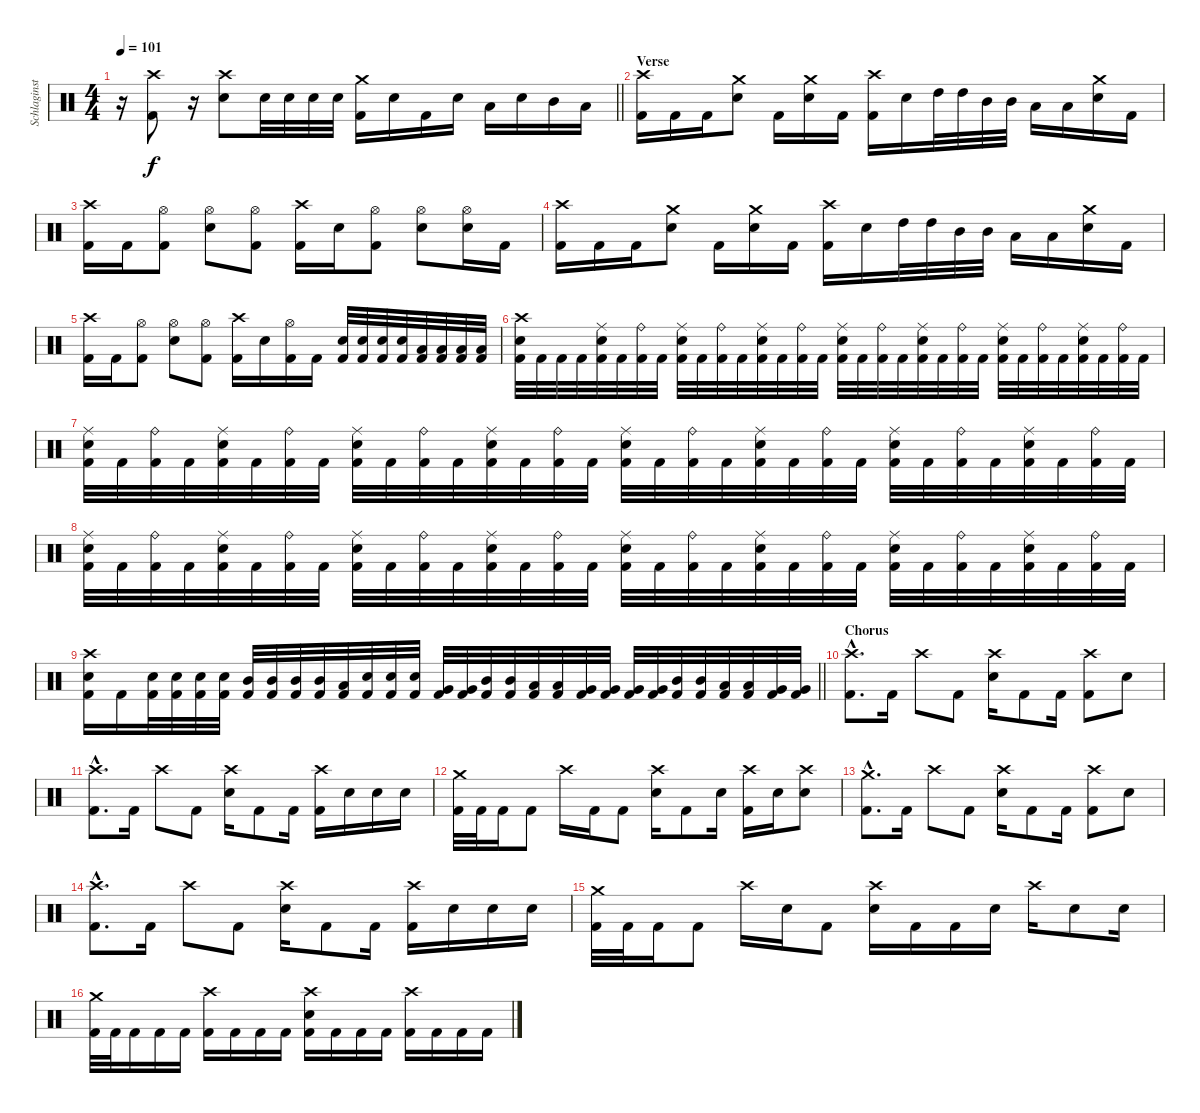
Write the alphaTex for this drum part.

\track ("Schlaginstrumente - Auswahl" "Schlaginst") {instrument percussion}
\staff {score}
\articulation defaults
\ts (4 4)
\tempo 101
\clef neutral
\barLineRight lightlight
\ks c
r.16{dy f} ("Crash high (hit)" "Kick (hit) 2").8 r.16 ("Crash high (hit)" "Snare (hit) 2").8 "Snare (hit) 2".32 "Snare (hit) 2".32 "Snare (hit) 2".32 "Snare (hit) 2".32 ("Crash medium (hit)" "Kick (hit) 2").16 "Snare (hit) 2".16 "Kick (hit) 2".16 "Snare (hit) 2".16 "Low Floor Tom (hit)".16 "Snare (hit) 2".16 "Mid Tom (hit)".16 "Low Tom (hit)".16 |
\section ("" "Verse")
("Crash high (hit)" "Kick (hit) 2").16 "Kick (hit) 2".16 "Kick (hit) 2".16 ("Crash medium (hit)" "Snare (hit) 2").8 "Kick (hit) 2".16 ("Crash medium (hit)" "Snare (hit) 2").16 "Kick (hit) 2".16 ("Crash high (hit)" "Kick (hit) 2").16 "Snare (hit) 2".16 "High Tom (hit)".32 "High Tom (hit)".32 "Mid Tom (hit)".32 "Mid Tom (hit)".32 "Low Tom (hit)".16 "Low Tom (hit)".16 ("Crash medium (hit)" "Snare (hit) 2").16 "Kick (hit) 2".16 |
("Crash high (hit)" "Kick (hit) 2").16 "Kick (hit) 2".16 ("Hi-Hat (open)" "Kick (hit) 2").8 ("Hi-Hat (open)" "Snare (hit) 2").8 ("Hi-Hat (open)" "Kick (hit) 2").8 ("Crash high (hit)" "Kick (hit) 2").16 "Snare (hit) 2".16 ("Hi-Hat (open)" "Kick (hit) 2").8 ("Hi-Hat (open)" "Snare (hit) 2").8 ("Hi-Hat (open)" "Snare (hit) 2").16 "Kick (hit) 2".16 |
("Crash high (hit)" "Kick (hit) 2").16 "Kick (hit) 2".16 "Kick (hit) 2".16 ("Crash medium (hit)" "Snare (hit) 2").8 "Kick (hit) 2".16 ("Crash medium (hit)" "Snare (hit) 2").16 "Kick (hit) 2".16 ("Crash high (hit)" "Kick (hit) 2").16 "Snare (hit) 2".16 "High Tom (hit)".32 "High Tom (hit)".32 "Mid Tom (hit)".32 "Mid Tom (hit)".32 "Low Tom (hit)".16 "Low Tom (hit)".16 ("Crash medium (hit)" "Snare (hit) 2").16 "Kick (hit) 2".16 |
("Crash high (hit)" "Kick (hit) 2").16 "Kick (hit) 2".16 ("Hi-Hat (open)" "Kick (hit) 2").8 ("Hi-Hat (open)" "Snare (hit) 2").8 ("Hi-Hat (open)" "Kick (hit) 2").8 ("Crash high (hit)" "Kick (hit) 2").16 "Snare (hit) 2".16 ("Hi-Hat (open)" "Kick (hit) 2").16 "Kick (hit) 2".16 ("Snare (hit) 2" "Kick (hit) 2").32 ("Snare (hit) 2" "Kick (hit) 2").32 ("Snare (hit) 2" "Kick (hit) 2").32 ("Snare (hit) 2" "Kick (hit) 2").32 ("Low Tom (hit)" "Kick (hit) 2").32 ("Low Tom (hit)" "Kick (hit) 2").32 ("Low Tom (hit)" "Kick (hit) 2").32 ("Low Tom (hit)" "Kick (hit) 2").32 |
("Crash high (hit)" "Snare (hit) 2" "Kick (hit) 2").32 "Kick (hit) 2".32 "Kick (hit) 2".32 "Kick (hit) 2".32 ("Ride (middle)" "Snare (hit) 2" "Kick (hit) 2").32 "Kick (hit) 2".32 ("Ride (bell)" "Kick (hit) 2").32 "Kick (hit) 2".32 ("Ride (middle)" "Snare (hit) 2" "Kick (hit) 2").32 "Kick (hit) 2".32 ("Ride (bell)" "Kick (hit) 2").32 "Kick (hit) 2".32 ("Ride (middle)" "Snare (hit) 2" "Kick (hit) 2").32 "Kick (hit) 2".32 ("Ride (bell)" "Kick (hit) 2").32 "Kick (hit) 2".32 ("Ride (middle)" "Snare (hit) 2" "Kick (hit) 2").32 "Kick (hit) 2".32 ("Ride (bell)" "Kick (hit) 2").32 "Kick (hit) 2".32 ("Ride (middle)" "Snare (hit) 2" "Kick (hit) 2").32 "Kick (hit) 2".32 ("Ride (bell)" "Kick (hit) 2").32 "Kick (hit) 2".32 ("Ride (middle)" "Snare (hit) 2" "Kick (hit) 2").32 "Kick (hit) 2".32 ("Ride (bell)" "Kick (hit) 2").32 "Kick (hit) 2".32 ("Ride (middle)" "Snare (hit) 2" "Kick (hit) 2").32 "Kick (hit) 2".32 ("Ride (bell)" "Kick (hit) 2").32 "Kick (hit) 2".32 |
("Ride (middle)" "Snare (hit) 2" "Kick (hit) 2").32 "Kick (hit) 2".32 ("Ride (bell)" "Kick (hit) 2").32 "Kick (hit) 2".32 ("Ride (middle)" "Snare (hit) 2" "Kick (hit) 2").32 "Kick (hit) 2".32 ("Ride (bell)" "Kick (hit) 2").32 "Kick (hit) 2".32 ("Ride (middle)" "Snare (hit) 2" "Kick (hit) 2").32 "Kick (hit) 2".32 ("Ride (bell)" "Kick (hit) 2").32 "Kick (hit) 2".32 ("Ride (middle)" "Snare (hit) 2" "Kick (hit) 2").32 "Kick (hit) 2".32 ("Ride (bell)" "Kick (hit) 2").32 "Kick (hit) 2".32 ("Ride (middle)" "Snare (hit) 2" "Kick (hit) 2").32 "Kick (hit) 2".32 ("Ride (bell)" "Kick (hit) 2").32 "Kick (hit) 2".32 ("Ride (middle)" "Snare (hit) 2" "Kick (hit) 2").32 "Kick (hit) 2".32 ("Ride (bell)" "Kick (hit) 2").32 "Kick (hit) 2".32 ("Ride (middle)" "Snare (hit) 2" "Kick (hit) 2").32 "Kick (hit) 2".32 ("Ride (bell)" "Kick (hit) 2").32 "Kick (hit) 2".32 ("Ride (middle)" "Snare (hit) 2" "Kick (hit) 2").32 "Kick (hit) 2".32 ("Ride (bell)" "Kick (hit) 2").32 "Kick (hit) 2".32 |
("Ride (middle)" "Snare (hit) 2" "Kick (hit) 2").32 "Kick (hit) 2".32 ("Ride (bell)" "Kick (hit) 2").32 "Kick (hit) 2".32 ("Ride (middle)" "Snare (hit) 2" "Kick (hit) 2").32 "Kick (hit) 2".32 ("Ride (bell)" "Kick (hit) 2").32 "Kick (hit) 2".32 ("Ride (middle)" "Snare (hit) 2" "Kick (hit) 2").32 "Kick (hit) 2".32 ("Ride (bell)" "Kick (hit) 2").32 "Kick (hit) 2".32 ("Ride (middle)" "Snare (hit) 2" "Kick (hit) 2").32 "Kick (hit) 2".32 ("Ride (bell)" "Kick (hit) 2").32 "Kick (hit) 2".32 ("Ride (middle)" "Snare (hit) 2" "Kick (hit) 2").32 "Kick (hit) 2".32 ("Ride (bell)" "Kick (hit) 2").32 "Kick (hit) 2".32 ("Ride (middle)" "Snare (hit) 2" "Kick (hit) 2").32 "Kick (hit) 2".32 ("Ride (bell)" "Kick (hit) 2").32 "Kick (hit) 2".32 ("Ride (middle)" "Snare (hit) 2" "Kick (hit) 2").32 "Kick (hit) 2".32 ("Ride (bell)" "Kick (hit) 2").32 "Kick (hit) 2".32 ("Ride (middle)" "Snare (hit) 2" "Kick (hit) 2").32 "Kick (hit) 2".32 ("Ride (bell)" "Kick (hit) 2").32 "Kick (hit) 2".32 |
\barLineRight lightlight
("Crash high (hit)" "Snare (hit) 2" "Kick (hit) 2").16 "Kick (hit) 2".16 ("Snare (hit) 2" "Kick (hit) 2").32 ("Snare (hit) 2" "Kick (hit) 2").32 ("Snare (hit) 2" "Kick (hit) 2").32 ("Snare (hit) 2" "Kick (hit) 2").32 ("Mid Tom (hit)" "Kick (hit) 2").32 ("Mid Tom (hit)" "Kick (hit) 2").32 ("Mid Tom (hit)" "Kick (hit) 2").32 ("Mid Tom (hit)" "Kick (hit) 2").32 ("Low Tom (hit)" "Kick (hit) 2").32 ("Snare (hit) 2" "Kick (hit) 2").32 ("Snare (hit) 2" "Kick (hit) 2").32 ("Snare (hit) 2" "Kick (hit) 2").32 ("Very Low Tom (hit)" "Kick (hit) 2").32 ("Very Low Tom (hit)" "Kick (hit) 2").32 ("Mid Tom (hit)" "Kick (hit) 2").32 ("Mid Tom (hit)" "Kick (hit) 2").32 ("Low Tom (hit)" "Kick (hit) 2").32 ("Low Tom (hit)" "Kick (hit) 2").32 ("Very Low Tom (hit)" "Kick (hit) 2").32 ("Very Low Tom (hit)" "Kick (hit) 2").32 ("Very Low Tom (hit)" "Kick (hit) 2").32 ("Very Low Tom (hit)" "Kick (hit) 2").32 ("Mid Tom (hit)" "Kick (hit) 2").32 ("Mid Tom (hit)" "Kick (hit) 2").32 ("Low Tom (hit)" "Kick (hit) 2").32 ("Low Tom (hit)" "Kick (hit) 2").32 ("Very Low Tom (hit)" "Kick (hit) 2").32 ("Very Low Tom (hit)" "Kick (hit) 2").32 |
\section ("" "Chorus")
("Crash high (hit)"{hac} "Kick (hit) 2"{hac}).8{d} "Kick (hit) 2".16 "Crash high (hit)".8 "Kick (hit) 2".8 ("Crash high (hit)" "Snare (hit) 2").16 "Kick (hit) 2".8 "Kick (hit) 2".16 ("Crash high (hit)" "Kick (hit) 2").8 "Snare (hit) 2".8 |
("Crash high (hit)"{hac} "Kick (hit) 2"{hac}).8{d} "Kick (hit) 2".16 "Crash high (hit)".8 "Kick (hit) 2".8 ("Crash high (hit)" "Snare (hit) 2").16 "Kick (hit) 2".8 "Kick (hit) 2".16 ("Crash high (hit)" "Kick (hit) 2").16 "Snare (hit) 2".16 "Snare (hit) 2".16 "Snare (hit) 2".16 |
("Crash medium (hit)" "Kick (hit) 2").32 "Kick (hit) 2".32 "Kick (hit) 2".16 "Kick (hit) 2".8 "Crash high (hit)".16 "Kick (hit) 2".16 "Kick (hit) 2".8 ("Crash high (hit)" "Snare (hit) 2").16 "Kick (hit) 2".8 "Snare (hit) 2".16 ("Crash high (hit)" "Kick (hit) 2").16 "Snare (hit) 2".16 ("Crash high (hit)" "Snare (hit) 2").8 |
("Crash medium (hit)"{hac} "Kick (hit) 2"{hac}).8{d} "Kick (hit) 2".16 "Crash high (hit)".8 "Kick (hit) 2".8 ("Crash high (hit)" "Snare (hit) 2").16 "Kick (hit) 2".8 "Kick (hit) 2".16 ("Crash high (hit)" "Kick (hit) 2").8 "Snare (hit) 2".8 |
("Crash high (hit)"{hac} "Kick (hit) 2"{hac}).8{d} "Kick (hit) 2".16 "Crash high (hit)".8 "Kick (hit) 2".8 ("Crash high (hit)" "Snare (hit) 2").16 "Kick (hit) 2".8 "Kick (hit) 2".16 ("Crash high (hit)" "Kick (hit) 2").16 "Snare (hit) 2".16 "Snare (hit) 2".16 "Snare (hit) 2".16 |
("Crash medium (hit)" "Kick (hit) 2").32 "Kick (hit) 2".32 "Kick (hit) 2".16 "Kick (hit) 2".8 "Crash high (hit)".16 "Snare (hit) 2".16 "Kick (hit) 2".8 ("Crash high (hit)" "Snare (hit) 2").16 "Kick (hit) 2".16 "Kick (hit) 2".16 "Snare (hit) 2".16 "Crash high (hit)".16 "Snare (hit) 2".8 "Snare (hit) 2".16 |
("Crash medium (hit)" "Kick (hit) 2").32 "Kick (hit) 2".32 "Kick (hit) 2".16 "Kick (hit) 2".16 "Kick (hit) 2".16 ("Crash high (hit)" "Kick (hit) 2").16 "Kick (hit) 2".16 "Kick (hit) 2".16 "Kick (hit) 2".16 ("Crash high (hit)" "Snare (hit) 2" "Kick (hit) 2").16 "Kick (hit) 2".16 "Kick (hit) 2".16 "Kick (hit) 2".16 ("Crash high (hit)" "Kick (hit) 2").16 "Kick (hit) 2".16 "Kick (hit) 2".16 "Kick (hit) 2".16
